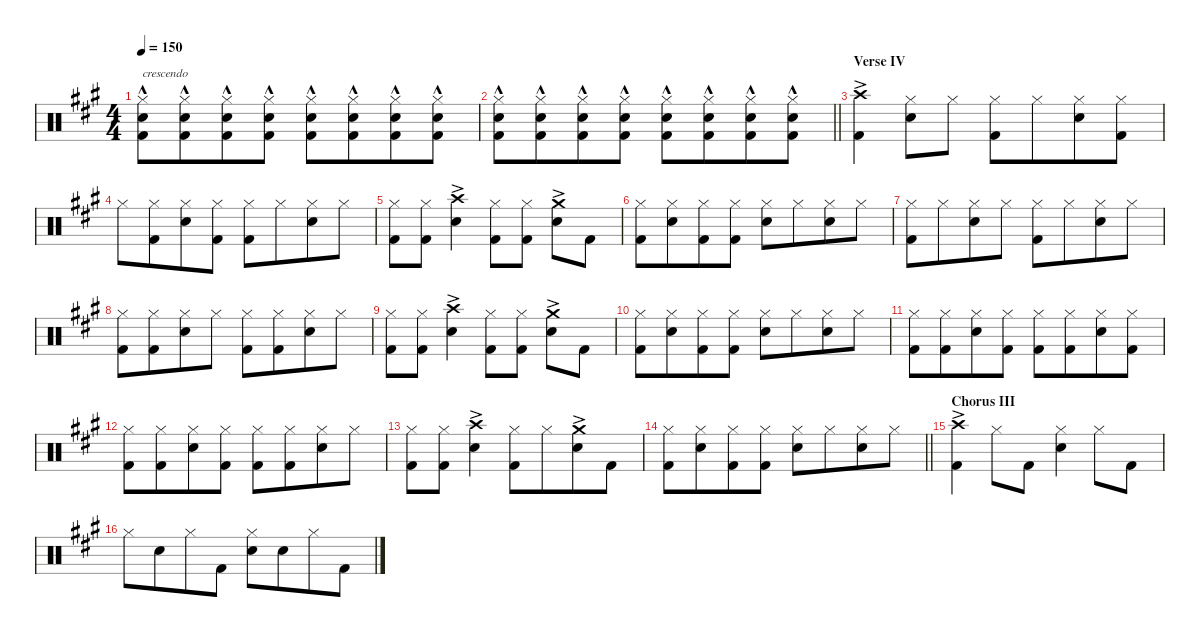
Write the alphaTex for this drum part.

\defaultSystemsLayout 4
\hideDynamics
\bracketExtendMode nobrackets
\singleTrackTrackNamePolicy hidden
\multiTrackTrackNamePolicy hidden
\firstSystemTrackNameMode fullname
\firstSystemTrackNameOrientation horizontal
\otherSystemsTrackNameOrientation horizontal
\track ("Drums" "drm.") {instrument percussion}
\staff {score}
\articulation defaults
\ts (4 4)
\tempo 150
\clef neutral
\ks a
("Hi-Hat (closed)"{hac acc forcenatural} "Snare (hit) 2"{acc forcenatural} "Kick (hit) 2"{acc forcenatural}).8{txt "crescendo" dy ppp beam Down} ("Hi-Hat (closed)"{hac acc forcenatural} "Snare (hit) 2"{acc forcenatural} "Kick (hit) 2"{acc forcenatural}).8{beam Down beam merge} ("Hi-Hat (closed)"{hac acc forcenatural} "Snare (hit) 2"{acc forcenatural} "Kick (hit) 2"{acc forcenatural}).8{dy pp beam Down} ("Hi-Hat (closed)"{hac acc forcenatural} "Snare (hit) 2"{acc forcenatural} "Kick (hit) 2"{acc forcenatural}).8{beam Down} ("Hi-Hat (closed)"{hac acc forcenatural} "Snare (hit) 2"{acc forcenatural} "Kick (hit) 2"{acc forcenatural}).8{dy p beam Down} ("Hi-Hat (closed)"{hac acc forcenatural} "Snare (hit) 2"{acc forcenatural} "Kick (hit) 2"{acc forcenatural}).8{beam Down beam merge} ("Hi-Hat (closed)"{hac acc forcenatural} "Snare (hit) 2"{acc forcenatural} "Kick (hit) 2"{acc forcenatural}).8{dy mp beam Down} ("Hi-Hat (closed)"{hac acc forcenatural} "Snare (hit) 2"{acc forcenatural} "Kick (hit) 2"{acc forcenatural}).8{beam Down} |
\barLineRight lightlight
("Hi-Hat (closed)"{hac acc forcenatural} "Snare (hit) 2"{acc forcenatural} "Kick (hit) 2"{acc forcenatural}).8{dy mf beam Down} ("Hi-Hat (closed)"{hac acc forcenatural} "Snare (hit) 2"{acc forcenatural} "Kick (hit) 2"{acc forcenatural}).8{beam Down beam merge} ("Hi-Hat (closed)"{hac acc forcenatural} "Snare (hit) 2"{acc forcenatural} "Kick (hit) 2"{acc forcenatural}).8{dy f beam Down} ("Hi-Hat (closed)"{hac acc forcenatural} "Snare (hit) 2"{acc forcenatural} "Kick (hit) 2"{acc forcenatural}).8{beam Down} ("Hi-Hat (closed)"{hac acc forcenatural} "Snare (hit) 2"{acc forcenatural} "Kick (hit) 2"{acc forcenatural}).8{dy ff beam Down} ("Hi-Hat (closed)"{hac acc forcenatural} "Snare (hit) 2"{acc forcenatural} "Kick (hit) 2"{acc forcenatural}).8{beam Down beam merge} ("Hi-Hat (closed)"{hac acc forcenatural} "Snare (hit) 2"{acc forcenatural} "Kick (hit) 2"{acc forcenatural}).8{dy fff beam Down} ("Hi-Hat (closed)"{hac acc forcenatural} "Snare (hit) 2"{acc forcenatural} "Kick (hit) 2"{acc forcenatural}).8{beam Down} |
\section ("" "Verse IV")
("Crash high (hit)"{ac acc forcenatural} "Kick (hit) 2"{acc forcenatural}).4{dy f beam Down beam merge} ("Hi-Hat (closed)"{acc forcenatural} "Snare (hit) 2"{acc forcenatural}).8{beam Down} "Hi-Hat (closed)"{acc forcenatural}.8{beam Down} ("Hi-Hat (closed)"{acc forcenatural} "Kick (hit) 2"{acc forcenatural}).8{beam Down} "Hi-Hat (closed)"{acc forcenatural}.8{beam Down beam merge} ("Hi-Hat (closed)"{acc forcenatural} "Snare (hit) 2"{acc forcenatural}).8{beam Down} ("Hi-Hat (closed)"{acc forcenatural} "Kick (hit) 2"{acc forcenatural}).8{beam Down} |
"Hi-Hat (closed)"{acc forcenatural}.8{beam Down} ("Hi-Hat (closed)"{acc forcenatural} "Kick (hit) 2"{acc forcenatural}).8{beam Down beam merge} ("Hi-Hat (closed)"{acc forcenatural} "Snare (hit) 2"{acc forcenatural}).8{beam Down} ("Hi-Hat (closed)"{acc forcenatural} "Kick (hit) 2"{acc forcenatural}).8{beam Down} ("Hi-Hat (closed)"{acc forcenatural} "Kick (hit) 2"{acc forcenatural}).8{beam Down} "Hi-Hat (closed)"{acc forcenatural}.8{beam Down beam merge} ("Hi-Hat (closed)"{acc forcenatural} "Snare (hit) 2"{acc forcenatural}).8{beam Down} "Hi-Hat (closed)"{acc forcenatural}.8{beam Down} |
("Hi-Hat (closed)"{acc forcenatural} "Kick (hit) 2"{acc forcenatural}).8{beam Down} ("Hi-Hat (closed)"{acc forcenatural} "Kick (hit) 2"{acc forcenatural}).8{beam Down} ("Crash high (hit)"{ac acc forcenatural} "Snare (hit) 2"{acc forcenatural}).4{beam Down} ("Hi-Hat (closed)"{acc forcenatural} "Kick (hit) 2"{acc forcenatural}).8{beam Down} ("Hi-Hat (closed)"{acc forcenatural} "Kick (hit) 2"{acc forcenatural}).8{beam Down} ("Crash medium (hit)"{ac acc forcenatural} "Snare (hit) 2"{acc forcenatural}).8{beam Down} "Kick (hit) 2"{acc forcenatural}.8{beam Down} |
("Hi-Hat (closed)"{acc forcenatural} "Kick (hit) 2"{acc forcenatural}).8{beam Down} ("Hi-Hat (closed)"{acc forcenatural} "Snare (hit) 2"{acc forcenatural}).8{beam Down beam merge} ("Hi-Hat (closed)"{acc forcenatural} "Kick (hit) 2"{acc forcenatural}).8{beam Down} ("Hi-Hat (closed)"{acc forcenatural} "Kick (hit) 2"{acc forcenatural}).8{beam Down} ("Hi-Hat (closed)"{acc forcenatural} "Snare (hit) 2"{acc forcenatural}).8{beam Down} "Hi-Hat (closed)"{acc forcenatural}.8{beam Down beam merge} ("Hi-Hat (closed)"{acc forcenatural} "Snare (hit) 2"{acc forcenatural}).8{beam Down} "Hi-Hat (closed)"{acc forcenatural}.8{beam Down} |
("Hi-Hat (closed)"{acc forcenatural} "Kick (hit) 2"{acc forcenatural}).8{beam Down} "Hi-Hat (closed)"{acc forcenatural}.8{beam Down beam merge} ("Hi-Hat (closed)"{acc forcenatural} "Snare (hit) 2"{acc forcenatural}).8{beam Down} "Hi-Hat (closed)"{acc forcenatural}.8{beam Down} ("Hi-Hat (closed)"{acc forcenatural} "Kick (hit) 2"{acc forcenatural}).8{beam Down} "Hi-Hat (closed)"{acc forcenatural}.8{beam Down beam merge} ("Hi-Hat (closed)"{acc forcenatural} "Snare (hit) 2"{acc forcenatural}).8{beam Down} "Hi-Hat (closed)"{acc forcenatural}.8{beam Down} |
("Hi-Hat (closed)"{acc forcenatural} "Kick (hit) 2"{acc forcenatural}).8{beam Down} ("Hi-Hat (closed)"{acc forcenatural} "Kick (hit) 2"{acc forcenatural}).8{beam Down beam merge} ("Hi-Hat (closed)"{acc forcenatural} "Snare (hit) 2"{acc forcenatural}).8{beam Down} "Hi-Hat (closed)"{acc forcenatural}.8{beam Down} ("Hi-Hat (closed)"{acc forcenatural} "Kick (hit) 2"{acc forcenatural}).8{beam Down} ("Hi-Hat (closed)"{acc forcenatural} "Kick (hit) 2"{acc forcenatural}).8{beam Down beam merge} ("Hi-Hat (closed)"{acc forcenatural} "Snare (hit) 2"{acc forcenatural}).8{beam Down} "Hi-Hat (closed)"{acc forcenatural}.8{beam Down} |
("Hi-Hat (closed)"{acc forcenatural} "Kick (hit) 2"{acc forcenatural}).8{beam Down} ("Hi-Hat (closed)"{acc forcenatural} "Kick (hit) 2"{acc forcenatural}).8{beam Down} ("Crash high (hit)"{ac acc forcenatural} "Snare (hit) 2"{acc forcenatural}).4{beam Down} ("Hi-Hat (closed)"{acc forcenatural} "Kick (hit) 2"{acc forcenatural}).8{beam Down} ("Hi-Hat (closed)"{acc forcenatural} "Kick (hit) 2"{acc forcenatural}).8{beam Down} ("Crash medium (hit)"{ac acc forcenatural} "Snare (hit) 2"{acc forcenatural}).8{beam Down} "Kick (hit) 2"{acc forcenatural}.8{beam Down} |
("Hi-Hat (closed)"{acc forcenatural} "Kick (hit) 2"{acc forcenatural}).8{beam Down} ("Hi-Hat (closed)"{acc forcenatural} "Snare (hit) 2"{acc forcenatural}).8{beam Down beam merge} ("Hi-Hat (closed)"{acc forcenatural} "Kick (hit) 2"{acc forcenatural}).8{beam Down} ("Hi-Hat (closed)"{acc forcenatural} "Kick (hit) 2"{acc forcenatural}).8{beam Down} ("Hi-Hat (closed)"{acc forcenatural} "Snare (hit) 2"{acc forcenatural}).8{beam Down} "Hi-Hat (closed)"{acc forcenatural}.8{beam Down beam merge} ("Hi-Hat (closed)"{acc forcenatural} "Snare (hit) 2"{acc forcenatural}).8{beam Down} "Hi-Hat (closed)"{acc forcenatural}.8{beam Down} |
("Hi-Hat (closed)"{acc forcenatural} "Kick (hit) 2"{acc forcenatural}).8{beam Down} ("Hi-Hat (closed)"{acc forcenatural} "Kick (hit) 2"{acc forcenatural}).8{beam Down beam merge} ("Hi-Hat (closed)"{acc forcenatural} "Snare (hit) 2"{acc forcenatural}).8{beam Down} ("Hi-Hat (closed)"{acc forcenatural} "Kick (hit) 2"{acc forcenatural}).8{beam Down} ("Hi-Hat (closed)"{acc forcenatural} "Kick (hit) 2"{acc forcenatural}).8{beam Down} ("Hi-Hat (closed)"{acc forcenatural} "Kick (hit) 2"{acc forcenatural}).8{beam Down beam merge} ("Hi-Hat (closed)"{acc forcenatural} "Snare (hit) 2"{acc forcenatural}).8{beam Down} ("Hi-Hat (closed)"{acc forcenatural} "Kick (hit) 2"{acc forcenatural}).8{beam Down} |
("Hi-Hat (closed)"{acc forcenatural} "Kick (hit) 2"{acc forcenatural}).8{beam Down} ("Hi-Hat (closed)"{acc forcenatural} "Kick (hit) 2"{acc forcenatural}).8{beam Down beam merge} ("Hi-Hat (closed)"{acc forcenatural} "Snare (hit) 2"{acc forcenatural}).8{beam Down} ("Hi-Hat (closed)"{acc forcenatural} "Kick (hit) 2"{acc forcenatural}).8{beam Down} ("Hi-Hat (closed)"{acc forcenatural} "Kick (hit) 2"{acc forcenatural}).8{beam Down} ("Hi-Hat (closed)"{acc forcenatural} "Kick (hit) 2"{acc forcenatural}).8{beam Down beam merge} ("Hi-Hat (closed)"{acc forcenatural} "Snare (hit) 2"{acc forcenatural}).8{beam Down} "Hi-Hat (closed)"{acc forcenatural}.8{beam Down} |
("Hi-Hat (closed)"{acc forcenatural} "Kick (hit) 2"{acc forcenatural}).8{beam Down} ("Hi-Hat (closed)"{acc forcenatural} "Kick (hit) 2"{acc forcenatural}).8{beam Down} ("Crash high (hit)"{ac acc forcenatural} "Snare (hit) 2"{acc forcenatural}).4{beam Down} ("Hi-Hat (closed)"{acc forcenatural} "Kick (hit) 2"{acc forcenatural}).8{beam Down} "Hi-Hat (closed)"{acc forcenatural}.8{beam Down beam merge} ("Crash medium (hit)"{ac acc forcenatural} "Snare (hit) 2"{acc forcenatural}).8{beam Down} "Kick (hit) 2"{acc forcenatural}.8{beam Down} |
\barLineRight lightlight
("Hi-Hat (closed)"{acc forcenatural} "Kick (hit) 2"{acc forcenatural}).8{beam Down} ("Hi-Hat (closed)"{acc forcenatural} "Snare (hit) 2"{acc forcenatural}).8{beam Down beam merge} ("Hi-Hat (closed)"{acc forcenatural} "Kick (hit) 2"{acc forcenatural}).8{beam Down} ("Hi-Hat (closed)"{acc forcenatural} "Kick (hit) 2"{acc forcenatural}).8{beam Down} ("Hi-Hat (closed)"{acc forcenatural} "Snare (hit) 2"{acc forcenatural}).8{beam Down} "Hi-Hat (closed)"{acc forcenatural}.8{beam Down beam merge} ("Hi-Hat (closed)"{acc forcenatural} "Snare (hit) 2"{acc forcenatural}).8{beam Down} "Hi-Hat (closed)"{acc forcenatural}.8{beam Down} |
\section ("" "Chorus III")
("Crash high (hit)"{ac acc forcenatural} "Kick (hit) 2"{acc forcenatural}).4{beam Down} "Hi-Hat (closed)"{acc forcenatural}.8{beam Down} "Kick (hit) 2"{acc forcenatural}.8{beam Down} ("Hi-Hat (closed)"{acc forcenatural} "Snare (hit) 2"{acc forcenatural}).4{beam Down} "Hi-Hat (closed)"{acc forcenatural}.8{beam Down} "Kick (hit) 2"{acc forcenatural}.8{beam Down} |
"Hi-Hat (closed)"{acc forcenatural}.8{beam Down} "Snare (hit) 2"{acc forcenatural}.8{beam Down beam merge} "Hi-Hat (closed)"{acc forcenatural}.8{beam Down} "Kick (hit) 2"{acc forcenatural}.8{beam Down} ("Hi-Hat (closed)"{acc forcenatural} "Snare (hit) 2"{acc forcenatural}).8{beam Down} "Snare (hit) 2"{acc forcenatural}.8{beam Down beam merge} "Hi-Hat (closed)"{acc forcenatural}.8{beam Down} "Kick (hit) 2"{acc forcenatural}.8{beam Down}
